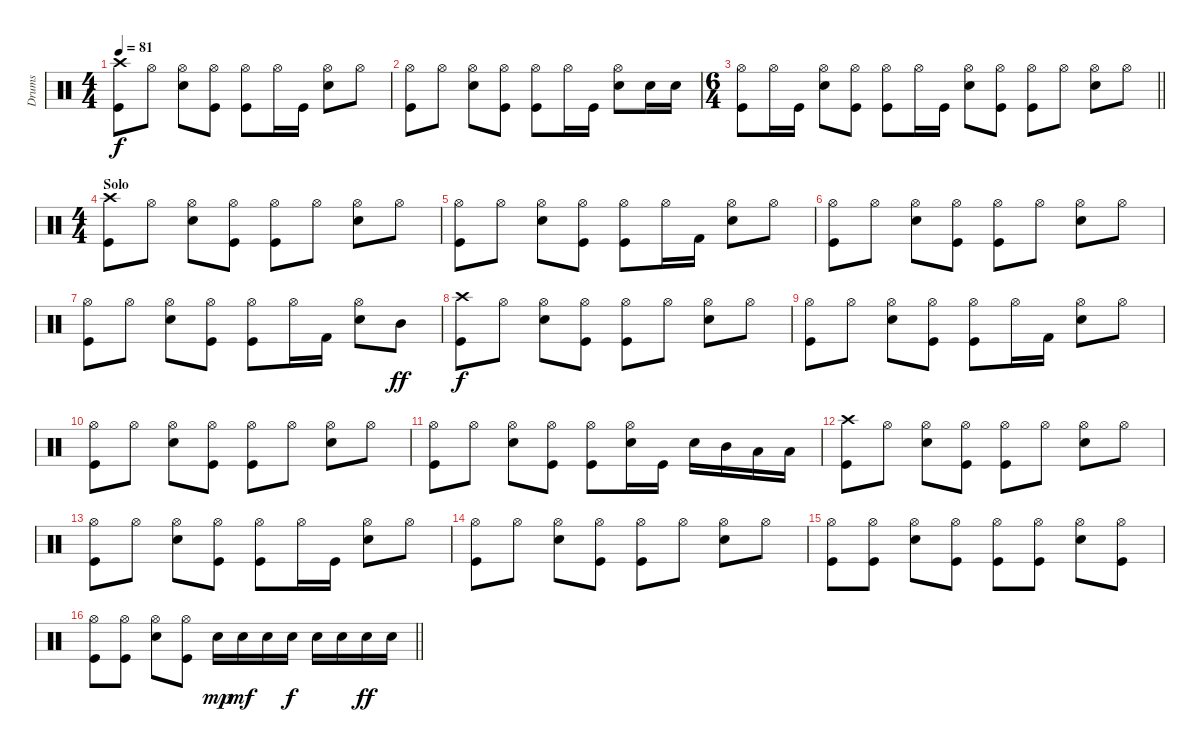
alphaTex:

\track ("Drums" "Drums") {instrument percussion}
\staff {score}
\articulation defaults
\ts (4 4)
\tempo 81
\clef neutral
\ks c
("Crash high (hit)" "Kick (hit)").8{dy f} "Hi-Hat (open)".8 ("Hi-Hat (open)" "Snare (hit) 2").8 ("Hi-Hat (open)" "Kick (hit)").8 ("Hi-Hat (open)" "Kick (hit)").8 "Hi-Hat (open)".16 "Kick (hit)".16 ("Hi-Hat (open)" "Snare (hit) 2").8 "Hi-Hat (open)".8 |
("Hi-Hat (open)" "Kick (hit)").8 "Hi-Hat (open)".8 ("Hi-Hat (open)" "Snare (hit) 2").8 ("Hi-Hat (open)" "Kick (hit)").8 ("Hi-Hat (open)" "Kick (hit)").8 "Hi-Hat (open)".16 "Kick (hit)".16 ("Hi-Hat (open)" "Snare (hit) 2").8 "Snare (hit) 2".16 "Snare (hit) 2".16 |
\ts (6 4)
\barLineRight lightlight
("Hi-Hat (open)" "Kick (hit)").8 "Hi-Hat (open)".16 "Kick (hit)".16 ("Hi-Hat (open)" "Snare (hit) 2").8 ("Hi-Hat (open)" "Kick (hit)").8 ("Hi-Hat (open)" "Kick (hit)").8 "Hi-Hat (open)".16 "Kick (hit)".16 ("Hi-Hat (open)" "Snare (hit) 2").8 ("Hi-Hat (open)" "Kick (hit)").8 ("Hi-Hat (open)" "Kick (hit)").8 "Hi-Hat (open)".8 ("Hi-Hat (open)" "Snare (hit) 2").8 "Hi-Hat (open)".8 |
\ts (4 4)
\section ("" "Solo")
("Crash high (hit)" "Kick (hit)").8 "Hi-Hat (open)".8 ("Hi-Hat (open)" "Snare (hit) 2").8 ("Hi-Hat (open)" "Kick (hit)").8 ("Hi-Hat (open)" "Kick (hit)").8 "Hi-Hat (open)".8 ("Hi-Hat (open)" "Snare (hit) 2").8 "Hi-Hat (open)".8 |
("Hi-Hat (open)" "Kick (hit)").8 "Hi-Hat (open)".8 ("Hi-Hat (open)" "Snare (hit) 2").8 ("Hi-Hat (open)" "Kick (hit)").8 ("Hi-Hat (open)" "Kick (hit)").8 "Hi-Hat (open)".16 "Kick (hit) 2".16 ("Hi-Hat (open)" "Snare (hit) 2").8 "Hi-Hat (open)".8 |
("Hi-Hat (open)" "Kick (hit)").8 "Hi-Hat (open)".8 ("Hi-Hat (open)" "Snare (hit) 2").8 ("Hi-Hat (open)" "Kick (hit)").8 ("Hi-Hat (open)" "Kick (hit)").8 "Hi-Hat (open)".8 ("Hi-Hat (open)" "Snare (hit) 2").8 "Hi-Hat (open)".8 |
("Hi-Hat (open)" "Kick (hit)").8 "Hi-Hat (open)".8 ("Hi-Hat (open)" "Snare (hit) 2").8 ("Hi-Hat (open)" "Kick (hit)").8 ("Hi-Hat (open)" "Kick (hit)").8 "Hi-Hat (open)".16 "Kick (hit) 2".16 ("Hi-Hat (open)" "Snare (hit) 2").8 "Mid Tom (hit)".8{dy ff} |
("Crash high (hit)" "Kick (hit)").8{dy f} "Hi-Hat (open)".8 ("Hi-Hat (open)" "Snare (hit) 2").8 ("Hi-Hat (open)" "Kick (hit)").8 ("Hi-Hat (open)" "Kick (hit)").8 "Hi-Hat (open)".8 ("Hi-Hat (open)" "Snare (hit) 2").8 "Hi-Hat (open)".8 |
("Hi-Hat (open)" "Kick (hit)").8 "Hi-Hat (open)".8 ("Hi-Hat (open)" "Snare (hit) 2").8 ("Hi-Hat (open)" "Kick (hit)").8 ("Hi-Hat (open)" "Kick (hit)").8 "Hi-Hat (open)".16 "Kick (hit) 2".16 ("Hi-Hat (open)" "Snare (hit) 2").8 "Hi-Hat (open)".8 |
("Hi-Hat (open)" "Kick (hit)").8 "Hi-Hat (open)".8 ("Hi-Hat (open)" "Snare (hit) 2").8 ("Hi-Hat (open)" "Kick (hit)").8 ("Hi-Hat (open)" "Kick (hit)").8 "Hi-Hat (open)".8 ("Hi-Hat (open)" "Snare (hit) 2").8 "Hi-Hat (open)".8 |
("Hi-Hat (open)" "Kick (hit)").8 "Hi-Hat (open)".8 ("Hi-Hat (open)" "Snare (hit) 2").8 ("Hi-Hat (open)" "Kick (hit)").8 ("Hi-Hat (open)" "Kick (hit)").8 ("Hi-Hat (open)" "Snare (hit) 2").16 "Kick (hit)".16 "Snare (hit) 2".16 "Mid Tom (hit)".16 "Low Tom (hit)".16 "Low Tom (hit)".16 |
("Crash high (hit)" "Kick (hit)").8 "Hi-Hat (open)".8 ("Hi-Hat (open)" "Snare (hit) 2").8 ("Hi-Hat (open)" "Kick (hit)").8 ("Hi-Hat (open)" "Kick (hit)").8 "Hi-Hat (open)".8 ("Hi-Hat (open)" "Snare (hit) 2").8 "Hi-Hat (open)".8 |
("Hi-Hat (open)" "Kick (hit)").8 "Hi-Hat (open)".8 ("Hi-Hat (open)" "Snare (hit) 2").8 ("Hi-Hat (open)" "Kick (hit)").8 ("Hi-Hat (open)" "Kick (hit)").8 "Hi-Hat (open)".16 "Kick (hit)".16 ("Hi-Hat (open)" "Snare (hit) 2").8 "Hi-Hat (open)".8 |
("Hi-Hat (open)" "Kick (hit)").8 "Hi-Hat (open)".8 ("Hi-Hat (open)" "Snare (hit) 2").8 ("Hi-Hat (open)" "Kick (hit)").8 ("Hi-Hat (open)" "Kick (hit)").8 "Hi-Hat (open)".8 ("Hi-Hat (open)" "Snare (hit) 2").8 "Hi-Hat (open)".8 |
("Hi-Hat (open)" "Kick (hit)").8 ("Hi-Hat (open)" "Kick (hit)").8 ("Hi-Hat (open)" "Snare (hit) 2").8 ("Hi-Hat (open)" "Kick (hit)").8 ("Hi-Hat (open)" "Kick (hit)").8 ("Hi-Hat (open)" "Kick (hit)").8 ("Hi-Hat (open)" "Snare (hit) 2").8 ("Hi-Hat (open)" "Kick (hit)").8 |
\barLineRight lightlight
("Hi-Hat (open)" "Kick (hit)").8 ("Hi-Hat (open)" "Kick (hit)").8 ("Hi-Hat (open)" "Snare (hit) 2").8 ("Hi-Hat (open)" "Kick (hit)").8 "Snare (hit) 2".16{dy mp} "Snare (hit) 2".16{dy mf} "Snare (hit) 2".16 "Snare (hit) 2".16{dy f} "Snare (hit) 2".16 "Snare (hit) 2".16 "Snare (hit) 2".16{dy ff} "Snare (hit) 2".16
